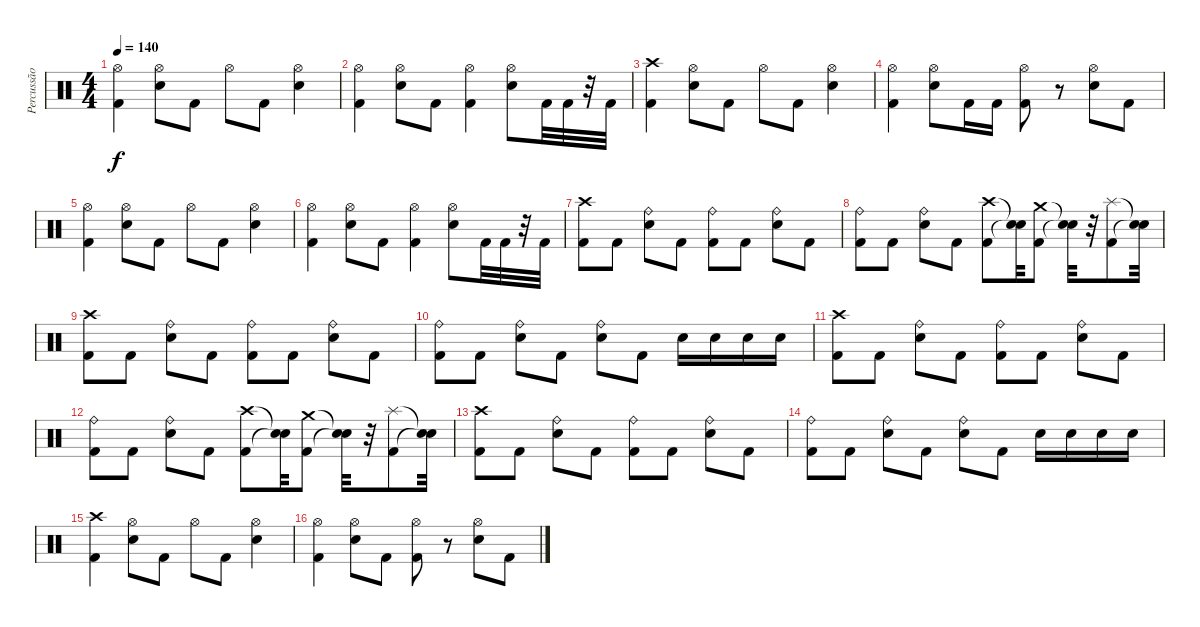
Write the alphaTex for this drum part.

\track ("Percussão" "Percussão") {instrument percussion}
\staff {score}
\articulation defaults
\ts (4 4)
\tempo 140
\clef neutral
\ks c
("Hi-Hat (open)" "Kick (hit) 2").4{dy f} ("Hi-Hat (open)" "Electric Snare (hit)").8 "Kick (hit) 2".8 "Hi-Hat (open)".8 "Kick (hit) 2".8 ("Hi-Hat (open)" "Electric Snare (hit)").4 |
("Hi-Hat (open)" "Kick (hit) 2").4 ("Hi-Hat (open)" "Electric Snare (hit)").8 "Kick (hit) 2".8 ("Hi-Hat (open)" "Kick (hit) 2").4 ("Hi-Hat (open)" "Electric Snare (hit)").8 "Kick (hit) 2".32 "Kick (hit) 2".32 r.32 "Kick (hit) 2".32 |
("Crash high (hit)" "Kick (hit) 2").4 ("Hi-Hat (open)" "Electric Snare (hit)").8 "Kick (hit) 2".8 "Hi-Hat (open)".8 "Kick (hit) 2".8 ("Hi-Hat (open)" "Electric Snare (hit)").4 |
("Hi-Hat (open)" "Kick (hit) 2").4 ("Hi-Hat (open)" "Electric Snare (hit)").8 "Kick (hit) 2".16 "Kick (hit) 2".16 ("Hi-Hat (open)" "Kick (hit) 2").8 r.8 ("Hi-Hat (open)" "Electric Snare (hit)").8 "Kick (hit) 2".8 |
("Hi-Hat (open)" "Kick (hit) 2").4 ("Hi-Hat (open)" "Electric Snare (hit)").8 "Kick (hit) 2".8 "Hi-Hat (open)".8 "Kick (hit) 2".8 ("Hi-Hat (open)" "Electric Snare (hit)").4 |
("Hi-Hat (open)" "Kick (hit) 2").4 ("Hi-Hat (open)" "Electric Snare (hit)").8 "Kick (hit) 2".8 ("Hi-Hat (open)" "Kick (hit) 2").4 ("Hi-Hat (open)" "Electric Snare (hit)").8 "Kick (hit) 2".32 "Kick (hit) 2".32 r.32 "Kick (hit) 2".32 |
("Crash high (hit)" "Kick (hit) 2").8 "Kick (hit) 2".8 ("Ride (bell)" "Electric Snare (hit)").8 "Kick (hit) 2".8 ("Ride (bell)" "Kick (hit) 2").8 "Kick (hit) 2".8 ("Ride (bell)" "Electric Snare (hit)").8 "Kick (hit) 2".8 |
("Ride (bell)" "Kick (hit) 2").8 "Kick (hit) 2".8 ("Ride (bell)" "Electric Snare (hit)").8 "Kick (hit) 2".8 ("Crash high (hit)" "Kick (hit) 2").8 ("Snare (hit)"{t} "Snare (hit)"{t}).32 ("Crash medium (hit)" "Kick (hit) 2").8 ("Snare (hit)"{t} "Snare (hit)"{t}).32 r.32 ("Splash (hit)" "Kick (hit) 2").8 ("Snare (hit)"{t} "Snare (hit)"{t}).32 |
("Crash high (hit)" "Kick (hit) 2").8 "Kick (hit) 2".8 ("Ride (bell)" "Electric Snare (hit)").8 "Kick (hit) 2".8 ("Ride (bell)" "Kick (hit) 2").8 "Kick (hit) 2".8 ("Ride (bell)" "Electric Snare (hit)").8 "Kick (hit) 2".8 |
("Ride (bell)" "Kick (hit) 2").8 "Kick (hit) 2".8 ("Ride (bell)" "Electric Snare (hit)").8 "Kick (hit) 2".8 ("Ride (bell)" "Electric Snare (hit)").8 "Kick (hit) 2".8 "Electric Snare (hit)".16 "Electric Snare (hit)".16 "Electric Snare (hit)".16 "Electric Snare (hit)".16 |
("Crash high (hit)" "Kick (hit) 2").8 "Kick (hit) 2".8 ("Ride (bell)" "Electric Snare (hit)").8 "Kick (hit) 2".8 ("Ride (bell)" "Kick (hit) 2").8 "Kick (hit) 2".8 ("Ride (bell)" "Electric Snare (hit)").8 "Kick (hit) 2".8 |
("Ride (bell)" "Kick (hit) 2").8 "Kick (hit) 2".8 ("Ride (bell)" "Electric Snare (hit)").8 "Kick (hit) 2".8 ("Crash high (hit)" "Kick (hit) 2").8 ("Snare (hit)"{t} "Snare (hit)"{t}).32 ("Crash medium (hit)" "Kick (hit) 2").8 ("Snare (hit)"{t} "Snare (hit)"{t}).32 r.32 ("Splash (hit)" "Kick (hit) 2").8 ("Snare (hit)"{t} "Snare (hit)"{t}).32 |
("Crash high (hit)" "Kick (hit) 2").8 "Kick (hit) 2".8 ("Ride (bell)" "Electric Snare (hit)").8 "Kick (hit) 2".8 ("Ride (bell)" "Kick (hit) 2").8 "Kick (hit) 2".8 ("Ride (bell)" "Electric Snare (hit)").8 "Kick (hit) 2".8 |
("Ride (bell)" "Kick (hit) 2").8 "Kick (hit) 2".8 ("Ride (bell)" "Electric Snare (hit)").8 "Kick (hit) 2".8 ("Ride (bell)" "Electric Snare (hit)").8 "Kick (hit) 2".8 "Electric Snare (hit)".16 "Electric Snare (hit)".16 "Electric Snare (hit)".16 "Electric Snare (hit)".16 |
("Crash high (hit)" "Kick (hit) 2").4 ("Hi-Hat (open)" "Electric Snare (hit)").8 "Kick (hit) 2".8 "Hi-Hat (open)".8 "Kick (hit) 2".8 ("Hi-Hat (open)" "Electric Snare (hit)").4 |
("Hi-Hat (open)" "Kick (hit) 2").4 ("Hi-Hat (open)" "Electric Snare (hit)").8 "Kick (hit) 2".8 ("Hi-Hat (open)" "Kick (hit) 2").8 r.8 ("Hi-Hat (open)" "Electric Snare (hit)").8 "Kick (hit) 2".8
